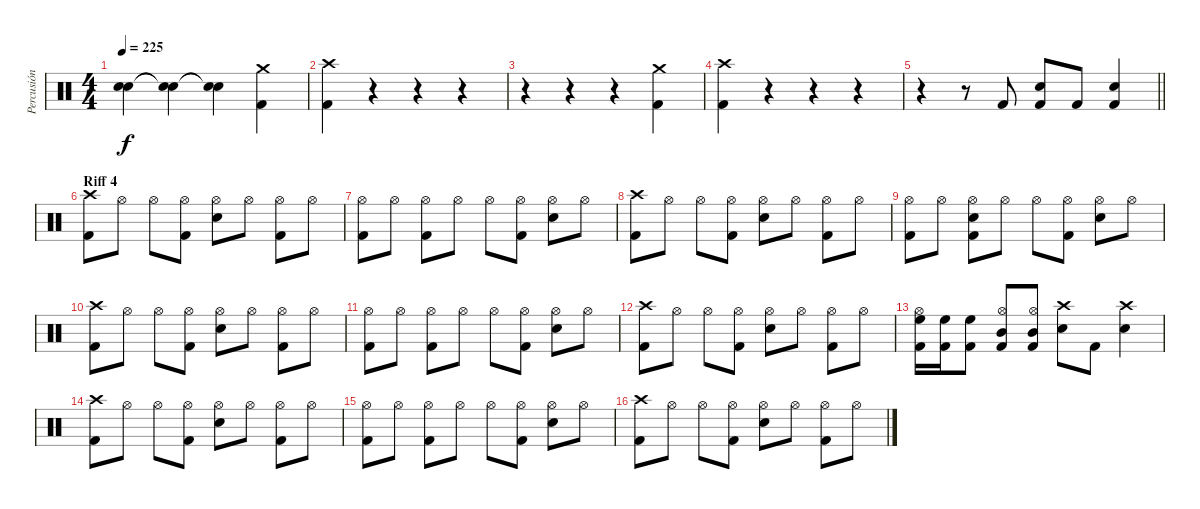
\track ("Percusión" "Percusión") {instrument percussion}
\staff {score}
\articulation defaults
\ts (4 4)
\tempo 225
\clef neutral
\ks c
("Snare (hit)"{t} "Snare (hit)"{t}).4{dy f} ("Snare (hit)"{t} "Snare (hit)"{t}).4 ("Snare (hit)"{t} "Snare (hit)"{t}).4 ("Crash medium (hit)" "Kick (hit) 2").4 |
("Crash high (hit)" "Kick (hit) 2").4 r.4 r.4 r.4 |
r.4 r.4 r.4 ("Crash medium (hit)" "Kick (hit) 2").4 |
("Crash high (hit)" "Kick (hit) 2").4 r.4 r.4 r.4 |
\barLineRight lightlight
r.4 r.8 "Kick (hit) 2".8 ("Electric Snare (hit)" "Kick (hit) 2").8 "Kick (hit) 2".8 ("Electric Snare (hit)" "Kick (hit) 2").4 |
\section ("" "Riff 4")
("Crash high (hit)" "Kick (hit) 2").8 "Hi-Hat (open)".8 "Hi-Hat (open)".8 ("Hi-Hat (open)" "Kick (hit) 2").8 ("Hi-Hat (open)" "Electric Snare (hit)").8 "Hi-Hat (open)".8 ("Hi-Hat (open)" "Kick (hit) 2").8 "Hi-Hat (open)".8 |
("Hi-Hat (open)" "Kick (hit) 2").8 "Hi-Hat (open)".8 ("Hi-Hat (open)" "Kick (hit) 2").8 "Hi-Hat (open)".8 "Hi-Hat (open)".8 ("Hi-Hat (open)" "Kick (hit) 2").8 ("Hi-Hat (open)" "Electric Snare (hit)").8 "Hi-Hat (open)".8 |
("Crash high (hit)" "Kick (hit) 2").8 "Hi-Hat (open)".8 "Hi-Hat (open)".8 ("Hi-Hat (open)" "Kick (hit) 2").8 ("Hi-Hat (open)" "Electric Snare (hit)").8 "Hi-Hat (open)".8 ("Hi-Hat (open)" "Kick (hit) 2").8 "Hi-Hat (open)".8 |
("Hi-Hat (open)" "Kick (hit) 2").8 "Hi-Hat (open)".8 ("Hi-Hat (open)" "Electric Snare (hit)" "Kick (hit) 2").8 "Hi-Hat (open)".8 "Hi-Hat (open)".8 ("Hi-Hat (open)" "Kick (hit) 2").8 ("Hi-Hat (open)" "Electric Snare (hit)").8 "Hi-Hat (open)".8 |
("Crash high (hit)" "Kick (hit) 2").8 "Hi-Hat (open)".8 "Hi-Hat (open)".8 ("Hi-Hat (open)" "Kick (hit) 2").8 ("Hi-Hat (open)" "Electric Snare (hit)").8 "Hi-Hat (open)".8 ("Hi-Hat (open)" "Kick (hit) 2").8 "Hi-Hat (open)".8 |
("Hi-Hat (open)" "Kick (hit) 2").8 "Hi-Hat (open)".8 ("Hi-Hat (open)" "Kick (hit) 2").8 "Hi-Hat (open)".8 "Hi-Hat (open)".8 ("Hi-Hat (open)" "Kick (hit) 2").8 ("Hi-Hat (open)" "Electric Snare (hit)").8 "Hi-Hat (open)".8 |
("Crash high (hit)" "Kick (hit) 2").8 "Hi-Hat (open)".8 "Hi-Hat (open)".8 ("Hi-Hat (open)" "Kick (hit) 2").8 ("Hi-Hat (open)" "Electric Snare (hit)").8 "Hi-Hat (open)".8 ("Hi-Hat (open)" "Kick (hit) 2").8 "Hi-Hat (open)".8 |
("Hi-Hat (open)" "High Floor Tom (hit)" "Kick (hit) 2").16 ("High Floor Tom (hit)" "Kick (hit) 2").16 ("High Floor Tom (hit)" "Kick (hit) 2").8 ("Hi-Hat (open)" "Mid Tom (hit)" "Kick (hit) 2").8 ("Hi-Hat (open)" "Mid Tom (hit)" "Kick (hit) 2").8 ("Crash high (hit)" "Electric Snare (hit)").8 "Kick (hit) 2".8 ("Crash high (hit)" "Electric Snare (hit)").4 |
("Crash high (hit)" "Kick (hit) 2").8 "Hi-Hat (open)".8 "Hi-Hat (open)".8 ("Hi-Hat (open)" "Kick (hit) 2").8 ("Hi-Hat (open)" "Electric Snare (hit)").8 "Hi-Hat (open)".8 ("Hi-Hat (open)" "Kick (hit) 2").8 "Hi-Hat (open)".8 |
("Hi-Hat (open)" "Kick (hit) 2").8 "Hi-Hat (open)".8 ("Hi-Hat (open)" "Kick (hit) 2").8 "Hi-Hat (open)".8 "Hi-Hat (open)".8 ("Hi-Hat (open)" "Kick (hit) 2").8 ("Hi-Hat (open)" "Electric Snare (hit)").8 "Hi-Hat (open)".8 |
("Crash high (hit)" "Kick (hit) 2").8 "Hi-Hat (open)".8 "Hi-Hat (open)".8 ("Hi-Hat (open)" "Kick (hit) 2").8 ("Hi-Hat (open)" "Electric Snare (hit)").8 "Hi-Hat (open)".8 ("Hi-Hat (open)" "Kick (hit) 2").8 "Hi-Hat (open)".8
